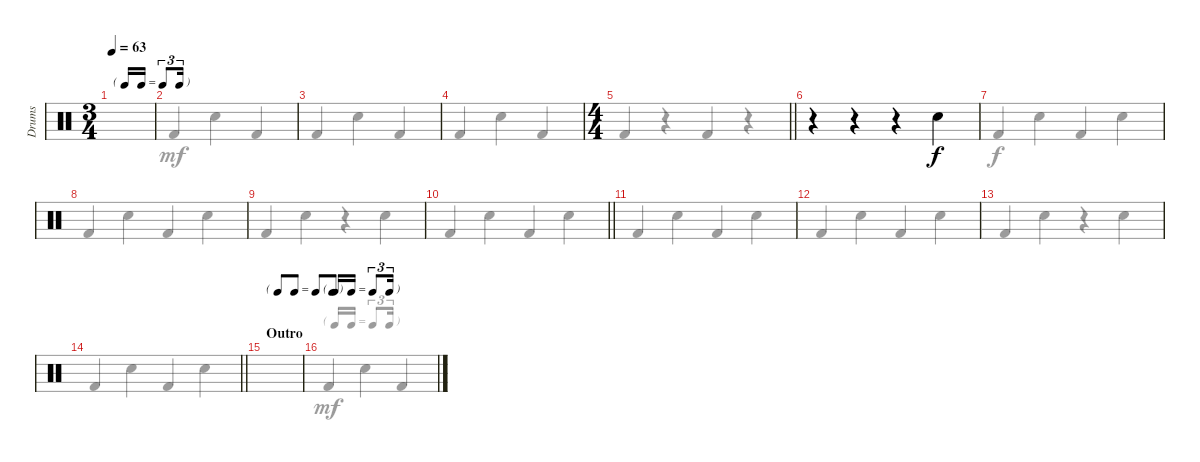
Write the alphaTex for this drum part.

\bracketExtendMode groupsimilarinstruments
\otherSystemsTrackNameOrientation horizontal
\track ("Drumkit" "Drums") {instrument percussion}
\staff {score}
\articulation defaults
\voice
\ts (3 4)
\beaming (8 2 2 2)
\tf triplet16th
\tempo 63
\clef neutral
\ks c
|
|
|
|
\ts (4 4)
\beaming (8 2 2 2 2)
\barLineRight lightlight
|
\scale
0.263889 r.4{beam Down} r.4{beam Down} r.4{beam Down} "Snare (hit) 2".4{beam Down} |
|
|
|
\barLineRight lightlight
|
|
|
|
\barLineRight lightlight
|
\tf none
\section ("" "Outro")
\scale
0.333333 |
\tf triplet16th
\scale
0.333333
\voice
\clef neutral
\ottava regular
\simile none
\ks c
|
|
|
|
\barLineRight lightlight
|
\scale
0.263889 |
|
|
|
\barLineRight lightlight
|
|
|
|
\barLineRight lightlight
|
\scale
0.333333 |
\scale
0.333333
\voice
\clef neutral
\ottava regular
\simile none
\ks c "Kick (hit) 2".4{dy mf beam Up} "Snare (hit) 2".4{beam Down} "Kick (hit) 2".4{beam Up}
|
"Kick (hit) 2".4{beam Up} "Snare (hit) 2".4{beam Down} "Kick (hit) 2".4{beam Up} |
"Kick (hit) 2".4{beam Up} "Snare (hit) 2".4{beam Down} "Kick (hit) 2".4{beam Up} |
"Kick (hit) 2".4{beam Up} "Snare (hit) 2".4{beam Down} "Kick (hit) 2".4{beam Up} |
\barLineRight lightlight "Kick (hit) 2".4{beam Up}
r.4{beam Up} "Kick (hit) 2".4{beam Up} r.4{beam Up} |
\scale
0.263889 |
"Kick (hit) 2".4{dy f beam Up} "Snare (hit) 2".4{beam Down} "Kick (hit) 2".4{beam Up} "Snare (hit) 2".4{beam Down} |
"Kick (hit) 2".4{beam Up} "Snare (hit) 2".4{beam Down} "Kick (hit) 2".4{beam Up} "Snare (hit) 2".4{beam Down} |
"Kick (hit) 2".4{beam Up} "Snare (hit) 2".4{beam Down} r.4{beam Down} "Snare (hit) 2".4{beam Down} |
\barLineRight lightlight "Kick (hit) 2".4{beam Up} "Snare (hit) 2".4{beam Down} "Kick (hit) 2".4{beam Up} "Snare (hit) 2".4{beam Down}
|
"Kick (hit) 2".4{beam Up} "Snare (hit) 2".4{beam Down} "Kick (hit) 2".4{beam Up} "Snare (hit) 2".4{beam Down} |
"Kick (hit) 2".4{beam Up} "Snare (hit) 2".4{beam Down} "Kick (hit) 2".4{beam Up} "Snare (hit) 2".4{beam Down} |
"Kick (hit) 2".4{beam Up} "Snare (hit) 2".4{beam Down} r.4{beam Down} "Snare (hit) 2".4{beam Down} |
\barLineRight lightlight "Kick (hit) 2".4{beam Up} "Snare (hit) 2".4{beam Down} "Kick (hit) 2".4{beam Up} "Snare (hit) 2".4{beam Down}
|
\scale
0.333333 |
\scale
0.333333
